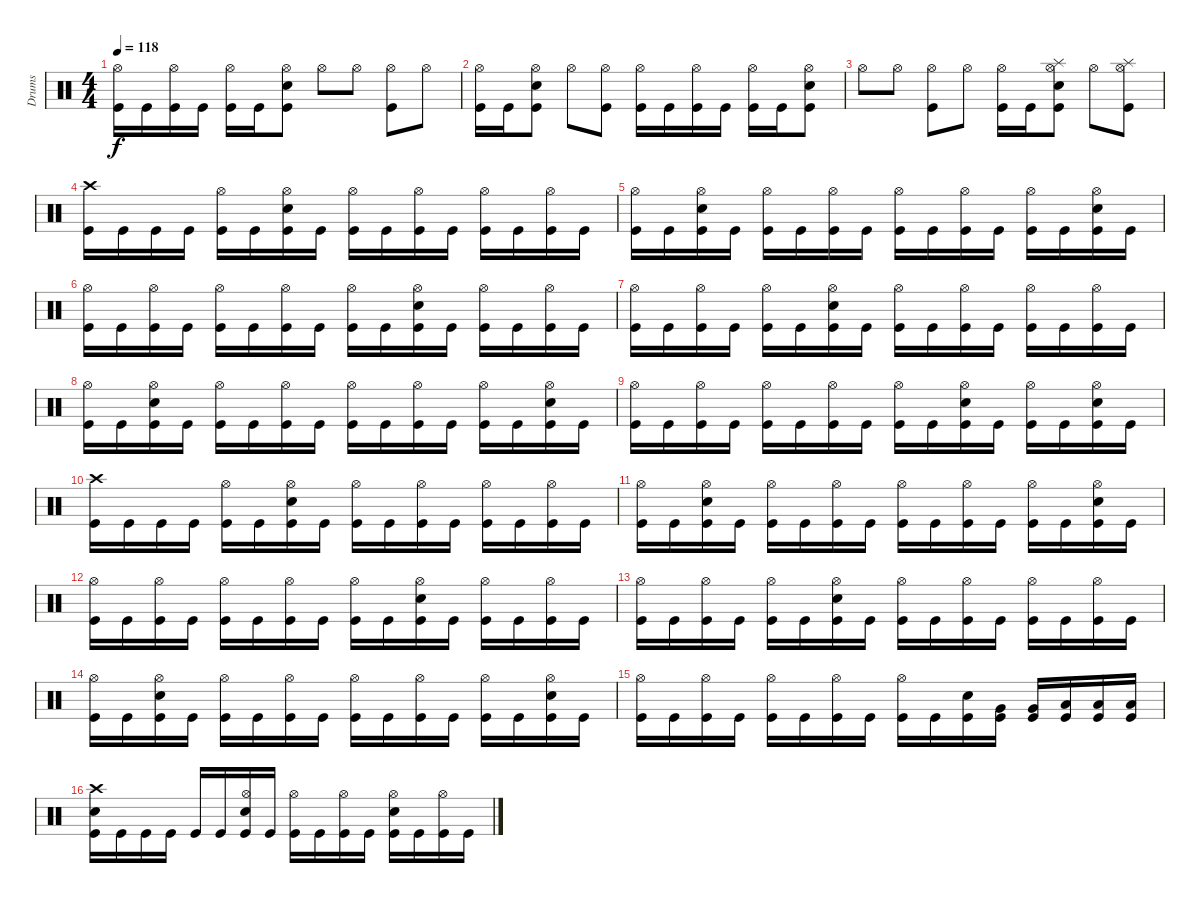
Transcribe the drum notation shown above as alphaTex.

\track ("Drums" "Drums") {instrument percussion}
\staff {score}
\articulation defaults
\ts (4 4)
\tempo 118
\clef neutral
\ks c
("Kick (hit)" "Hi-Hat (open)").16{dy f} "Kick (hit)".16 ("Kick (hit)" "Hi-Hat (open)").16 "Kick (hit)".16 ("Kick (hit)" "Hi-Hat (open)").16 "Kick (hit)".16 ("Kick (hit)" "Snare (hit) 2" "Hi-Hat (open)").8 "Hi-Hat (open)".8 "Hi-Hat (open)".8 ("Kick (hit)" "Hi-Hat (open)").8 "Hi-Hat (open)".8 |
("Kick (hit)" "Hi-Hat (open)").16 "Kick (hit)".16 ("Kick (hit)" "Snare (hit) 2" "Hi-Hat (open)").8 "Hi-Hat (open)".8 ("Kick (hit)" "Hi-Hat (open)").8 ("Kick (hit)" "Hi-Hat (open)").16 "Kick (hit)".16 ("Kick (hit)" "Hi-Hat (open)").16 "Kick (hit)".16 ("Kick (hit)" "Hi-Hat (open)").16 "Kick (hit)".16 ("Kick (hit)" "Snare (hit) 2" "Hi-Hat (open)").8 |
"Hi-Hat (open)".8 "Hi-Hat (open)".8 ("Kick (hit)" "Hi-Hat (open)").8 "Hi-Hat (open)".8 ("Kick (hit)" "Hi-Hat (open)").16 "Kick (hit)".16 ("Kick (hit)" "Snare (hit) 2" "Hi-Hat (open)" "Splash (hit)").8 "Hi-Hat (open)".8 ("Kick (hit)" "Hi-Hat (open)" "Splash (hit)").8 |
("Kick (hit)" "Crash high (hit)").16 "Kick (hit)".16 "Kick (hit)".16 "Kick (hit)".16 ("Kick (hit)" "Hi-Hat (open)").16 "Kick (hit)".16 ("Kick (hit)" "Snare (hit) 2" "Hi-Hat (open)").16 "Kick (hit)".16 ("Kick (hit)" "Hi-Hat (open)").16 "Kick (hit)".16 ("Kick (hit)" "Hi-Hat (open)").16 "Kick (hit)".16 ("Kick (hit)" "Hi-Hat (open)").16 "Kick (hit)".16 ("Kick (hit)" "Hi-Hat (open)").16 "Kick (hit)".16 |
("Kick (hit)" "Hi-Hat (open)").16 "Kick (hit)".16 ("Kick (hit)" "Snare (hit) 2" "Hi-Hat (open)").16 "Kick (hit)".16 ("Kick (hit)" "Hi-Hat (open)").16 "Kick (hit)".16 ("Kick (hit)" "Hi-Hat (open)").16 "Kick (hit)".16 ("Kick (hit)" "Hi-Hat (open)").16 "Kick (hit)".16 ("Kick (hit)" "Hi-Hat (open)").16 "Kick (hit)".16 ("Kick (hit)" "Hi-Hat (open)").16 "Kick (hit)".16 ("Kick (hit)" "Snare (hit) 2" "Hi-Hat (open)").16 "Kick (hit)".16 |
("Kick (hit)" "Hi-Hat (open)").16 "Kick (hit)".16 ("Kick (hit)" "Hi-Hat (open)").16 "Kick (hit)".16 ("Kick (hit)" "Hi-Hat (open)").16 "Kick (hit)".16 ("Kick (hit)" "Hi-Hat (open)").16 "Kick (hit)".16 ("Kick (hit)" "Hi-Hat (open)").16 "Kick (hit)".16 ("Kick (hit)" "Snare (hit) 2" "Hi-Hat (open)").16 "Kick (hit)".16 ("Kick (hit)" "Hi-Hat (open)").16 "Kick (hit)".16 ("Kick (hit)" "Hi-Hat (open)").16 "Kick (hit)".16 |
("Kick (hit)" "Hi-Hat (open)").16 "Kick (hit)".16 ("Kick (hit)" "Hi-Hat (open)").16 "Kick (hit)".16 ("Kick (hit)" "Hi-Hat (open)").16 "Kick (hit)".16 ("Kick (hit)" "Snare (hit) 2" "Hi-Hat (open)").16 "Kick (hit)".16 ("Kick (hit)" "Hi-Hat (open)").16 "Kick (hit)".16 ("Kick (hit)" "Hi-Hat (open)").16 "Kick (hit)".16 ("Kick (hit)" "Hi-Hat (open)").16 "Kick (hit)".16 ("Kick (hit)" "Hi-Hat (open)").16 "Kick (hit)".16 |
("Kick (hit)" "Hi-Hat (open)").16 "Kick (hit)".16 ("Kick (hit)" "Snare (hit) 2" "Hi-Hat (open)").16 "Kick (hit)".16 ("Kick (hit)" "Hi-Hat (open)").16 "Kick (hit)".16 ("Kick (hit)" "Hi-Hat (open)").16 "Kick (hit)".16 ("Kick (hit)" "Hi-Hat (open)").16 "Kick (hit)".16 ("Kick (hit)" "Hi-Hat (open)").16 "Kick (hit)".16 ("Kick (hit)" "Hi-Hat (open)").16 "Kick (hit)".16 ("Kick (hit)" "Snare (hit) 2" "Hi-Hat (open)").16 "Kick (hit)".16 |
("Kick (hit)" "Hi-Hat (open)").16 "Kick (hit)".16 ("Kick (hit)" "Hi-Hat (open)").16 "Kick (hit)".16 ("Kick (hit)" "Hi-Hat (open)").16 "Kick (hit)".16 ("Kick (hit)" "Hi-Hat (open)").16 "Kick (hit)".16 ("Kick (hit)" "Hi-Hat (open)").16 "Kick (hit)".16 ("Kick (hit)" "Snare (hit) 2" "Hi-Hat (open)").16 "Kick (hit)".16 ("Kick (hit)" "Hi-Hat (open)").16 "Kick (hit)".16 ("Kick (hit)" "Snare (hit) 2" "Hi-Hat (open)").16 "Kick (hit)".16 |
("Kick (hit)" "Crash high (hit)").16 "Kick (hit)".16 "Kick (hit)".16 "Kick (hit)".16 ("Kick (hit)" "Hi-Hat (open)").16 "Kick (hit)".16 ("Kick (hit)" "Snare (hit) 2" "Hi-Hat (open)").16 "Kick (hit)".16 ("Kick (hit)" "Hi-Hat (open)").16 "Kick (hit)".16 ("Kick (hit)" "Hi-Hat (open)").16 "Kick (hit)".16 ("Kick (hit)" "Hi-Hat (open)").16 "Kick (hit)".16 ("Kick (hit)" "Hi-Hat (open)").16 "Kick (hit)".16 |
("Kick (hit)" "Hi-Hat (open)").16 "Kick (hit)".16 ("Kick (hit)" "Snare (hit) 2" "Hi-Hat (open)").16 "Kick (hit)".16 ("Kick (hit)" "Hi-Hat (open)").16 "Kick (hit)".16 ("Kick (hit)" "Hi-Hat (open)").16 "Kick (hit)".16 ("Kick (hit)" "Hi-Hat (open)").16 "Kick (hit)".16 ("Kick (hit)" "Hi-Hat (open)").16 "Kick (hit)".16 ("Kick (hit)" "Hi-Hat (open)").16 "Kick (hit)".16 ("Kick (hit)" "Snare (hit) 2" "Hi-Hat (open)").16 "Kick (hit)".16 |
("Kick (hit)" "Hi-Hat (open)").16 "Kick (hit)".16 ("Kick (hit)" "Hi-Hat (open)").16 "Kick (hit)".16 ("Kick (hit)" "Hi-Hat (open)").16 "Kick (hit)".16 ("Kick (hit)" "Hi-Hat (open)").16 "Kick (hit)".16 ("Kick (hit)" "Hi-Hat (open)").16 "Kick (hit)".16 ("Kick (hit)" "Snare (hit) 2" "Hi-Hat (open)").16 "Kick (hit)".16 ("Kick (hit)" "Hi-Hat (open)").16 "Kick (hit)".16 ("Kick (hit)" "Hi-Hat (open)").16 "Kick (hit)".16 |
("Kick (hit)" "Hi-Hat (open)").16 "Kick (hit)".16 ("Kick (hit)" "Hi-Hat (open)").16 "Kick (hit)".16 ("Kick (hit)" "Hi-Hat (open)").16 "Kick (hit)".16 ("Kick (hit)" "Snare (hit) 2" "Hi-Hat (open)").16 "Kick (hit)".16 ("Kick (hit)" "Hi-Hat (open)").16 "Kick (hit)".16 ("Kick (hit)" "Hi-Hat (open)").16 "Kick (hit)".16 ("Kick (hit)" "Hi-Hat (open)").16 "Kick (hit)".16 ("Kick (hit)" "Hi-Hat (open)").16 "Kick (hit)".16 |
("Kick (hit)" "Hi-Hat (open)").16 "Kick (hit)".16 ("Kick (hit)" "Snare (hit) 2" "Hi-Hat (open)").16 "Kick (hit)".16 ("Kick (hit)" "Hi-Hat (open)").16 "Kick (hit)".16 ("Kick (hit)" "Hi-Hat (open)").16 "Kick (hit)".16 ("Kick (hit)" "Hi-Hat (open)").16 "Kick (hit)".16 ("Kick (hit)" "Hi-Hat (open)").16 "Kick (hit)".16 ("Kick (hit)" "Hi-Hat (open)").16 "Kick (hit)".16 ("Kick (hit)" "Snare (hit) 2" "Hi-Hat (open)").16 "Kick (hit)".16 |
("Kick (hit)" "Hi-Hat (open)").16 "Kick (hit)".16 ("Kick (hit)" "Hi-Hat (open)").16 "Kick (hit)".16 ("Kick (hit)" "Hi-Hat (open)").16 "Kick (hit)".16 ("Kick (hit)" "Hi-Hat (open)").16 "Kick (hit)".16 ("Kick (hit)" "Hi-Hat (open)").16 "Kick (hit)".16 ("Kick (hit)" "Snare (hit) 2").16 ("Kick (hit)" "Very Low Tom (hit)").16 ("Kick (hit)" "Very Low Tom (hit)").16 ("Kick (hit)" "Low Floor Tom (hit)").16 ("Kick (hit)" "Low Floor Tom (hit)").16 ("Kick (hit)" "Low Floor Tom (hit)").16 |
("Kick (hit)" "Snare (hit) 2" "Crash high (hit)").16 "Kick (hit)".16 "Kick (hit)".16 "Kick (hit)".16 "Kick (hit)".16 "Kick (hit)".16 ("Kick (hit)" "Snare (hit) 2" "Hi-Hat (open)").16 "Kick (hit)".16 ("Kick (hit)" "Hi-Hat (open)").16 "Kick (hit)".16 ("Kick (hit)" "Hi-Hat (open)").16 "Kick (hit)".16 ("Kick (hit)" "Snare (hit) 2" "Hi-Hat (open)").16 "Kick (hit)".16 ("Kick (hit)" "Hi-Hat (open)").16 "Kick (hit)".16
